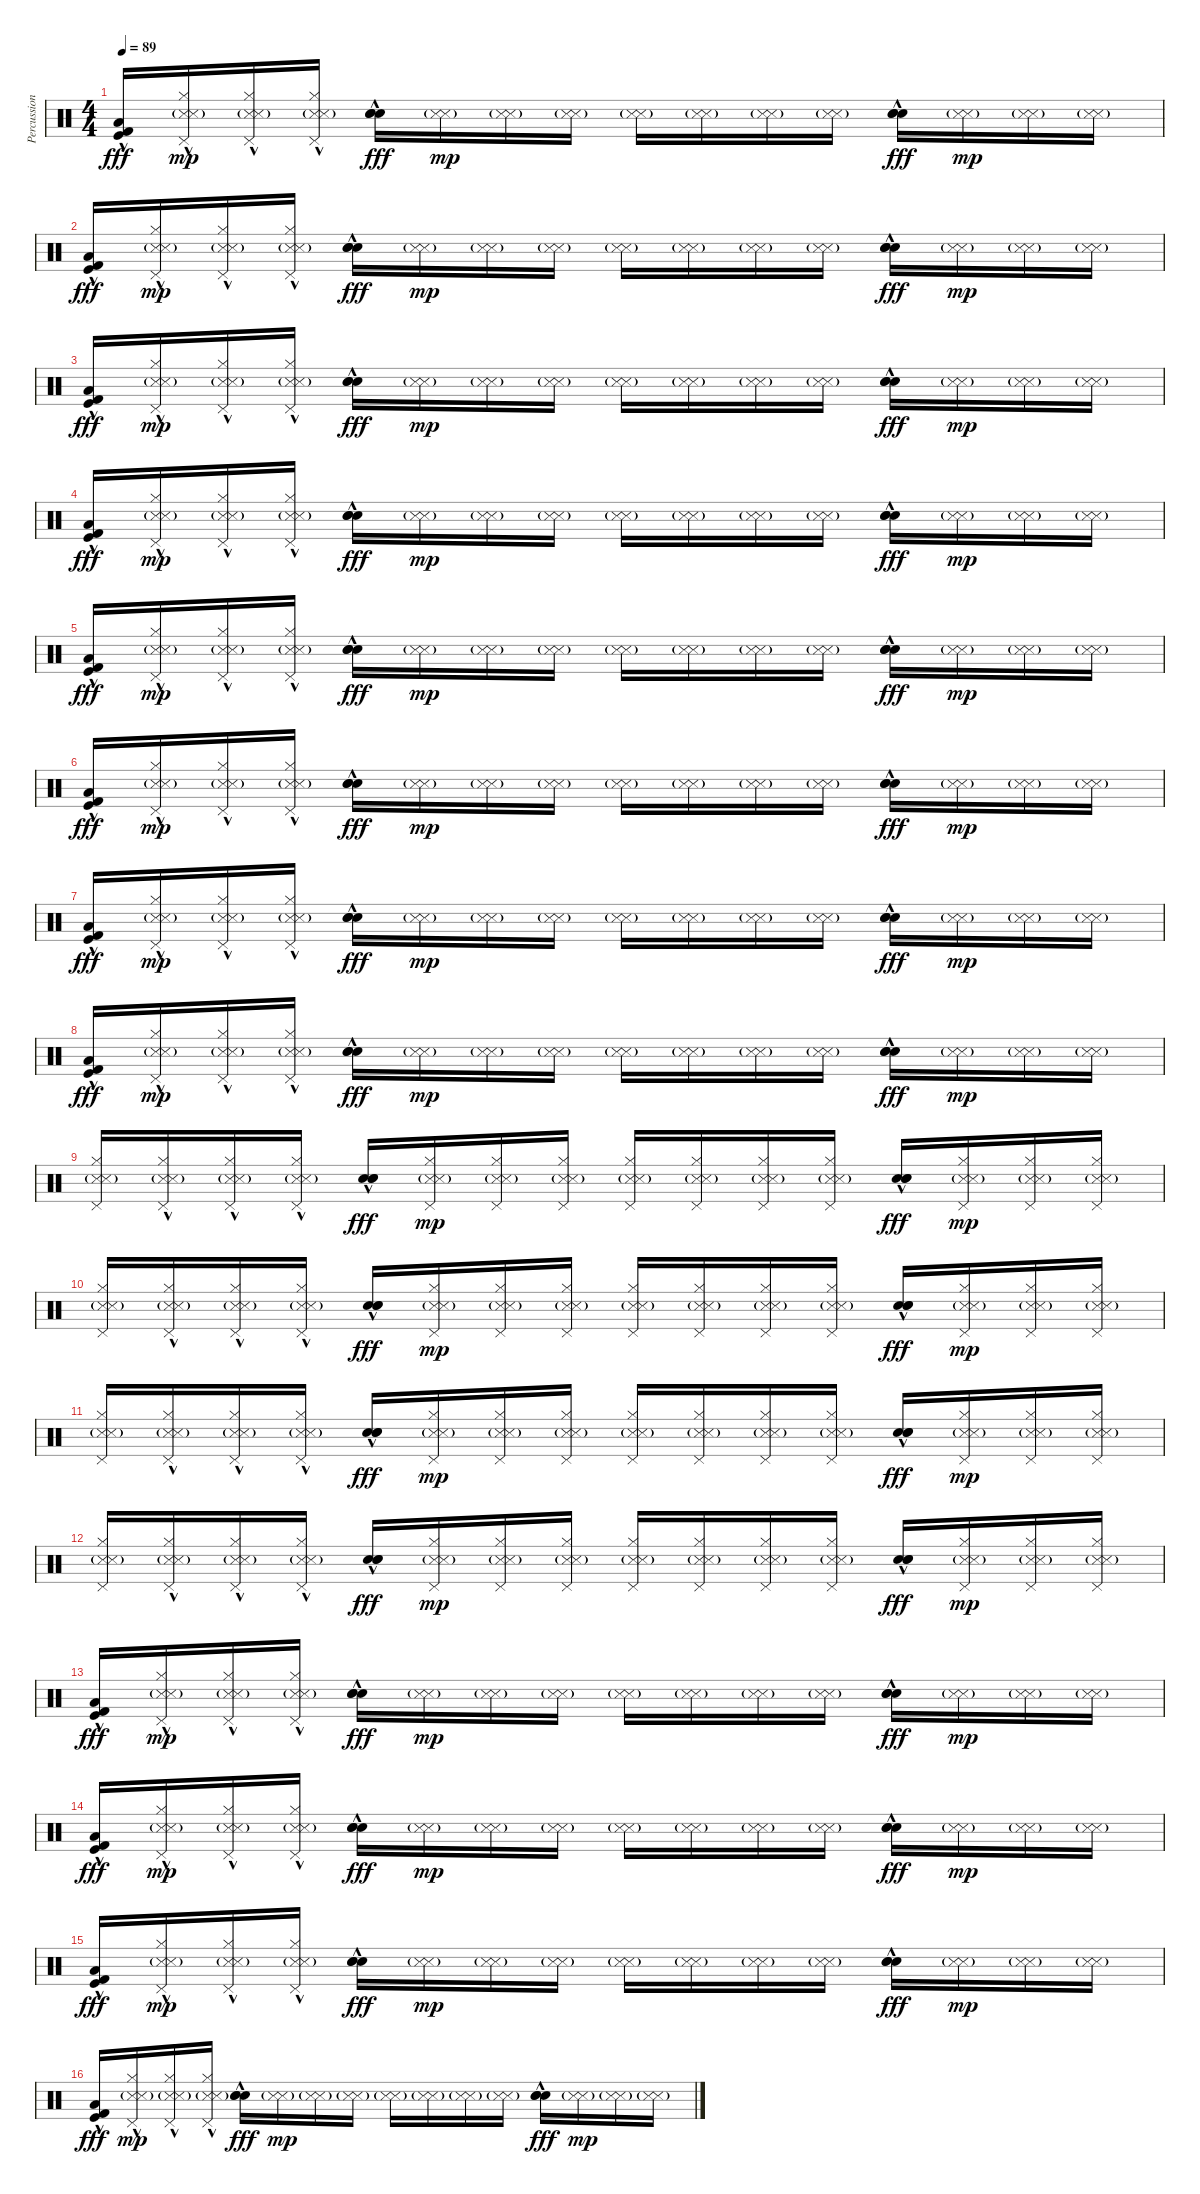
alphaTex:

\track ("Percussion" "Percussion") {instrument percussion}
\staff {score}
\articulation defaults
\ts (4 4)
\tempo 89
\clef neutral
\ks c
("Kick (hit) 2"{hac} "Kick (hit)"{hac} "Low Floor Tom (hit)"{hac}).16{dy fff} ("Pedal Hi-Hat (hit)"{hac} "Hi-Hat (closed)" "Snare (side stick) 3"{g} "Metronome (hit)"{g}).16{dy mp} ("Pedal Hi-Hat (hit)"{hac} "Hi-Hat (closed)" "Snare (side stick) 3"{g} "Metronome (hit)"{g}).16 ("Pedal Hi-Hat (hit)"{hac} "Hi-Hat (closed)" "Snare (side stick) 3"{g} "Metronome (hit)"{g}).16 ("Hand Clap (hit)"{hac} "Hand Clap (hit)"{hac} "Hand Clap (hit)"{hac}).16{dy fff} ("Snare (side stick) 3"{g} "Metronome (hit)"{g}).16{dy mp} ("Snare (side stick) 3"{g} "Metronome (hit)"{g}).16 ("Snare (side stick) 3"{g} "Metronome (hit)"{g}).16 ("Snare (side stick) 3"{g} "Metronome (hit)"{g}).16 ("Snare (side stick) 3"{g} "Metronome (hit)"{g}).16 ("Snare (side stick) 3"{g} "Metronome (hit)"{g}).16 ("Snare (side stick) 3"{g} "Metronome (hit)"{g}).16 ("Hand Clap (hit)"{hac} "Hand Clap (hit)"{hac} "Hand Clap (hit)"{hac}).16{dy fff} ("Snare (side stick) 3"{g} "Metronome (hit)"{g}).16{dy mp} ("Snare (side stick) 3"{g} "Metronome (hit)"{g}).16 ("Snare (side stick) 3"{g} "Metronome (hit)"{g}).16 |
("Kick (hit) 2"{hac} "Kick (hit)"{hac} "Low Floor Tom (hit)"{hac}).16{dy fff} ("Pedal Hi-Hat (hit)"{hac} "Hi-Hat (closed)" "Snare (side stick) 3"{g} "Metronome (hit)"{g}).16{dy mp} ("Pedal Hi-Hat (hit)"{hac} "Hi-Hat (closed)" "Snare (side stick) 3"{g} "Metronome (hit)"{g}).16 ("Pedal Hi-Hat (hit)"{hac} "Hi-Hat (closed)" "Snare (side stick) 3"{g} "Metronome (hit)"{g}).16 ("Hand Clap (hit)"{hac} "Hand Clap (hit)"{hac} "Hand Clap (hit)"{hac}).16{dy fff} ("Snare (side stick) 3"{g} "Metronome (hit)"{g}).16{dy mp} ("Snare (side stick) 3"{g} "Metronome (hit)"{g}).16 ("Snare (side stick) 3"{g} "Metronome (hit)"{g}).16 ("Snare (side stick) 3"{g} "Metronome (hit)"{g}).16 ("Snare (side stick) 3"{g} "Metronome (hit)"{g}).16 ("Snare (side stick) 3"{g} "Metronome (hit)"{g}).16 ("Snare (side stick) 3"{g} "Metronome (hit)"{g}).16 ("Hand Clap (hit)"{hac} "Hand Clap (hit)"{hac} "Hand Clap (hit)"{hac}).16{dy fff} ("Snare (side stick) 3"{g} "Metronome (hit)"{g}).16{dy mp} ("Snare (side stick) 3"{g} "Metronome (hit)"{g}).16 ("Snare (side stick) 3"{g} "Metronome (hit)"{g}).16 |
("Kick (hit) 2"{hac} "Kick (hit)"{hac} "Low Floor Tom (hit)"{hac}).16{dy fff} ("Pedal Hi-Hat (hit)"{hac} "Hi-Hat (closed)" "Snare (side stick) 3"{g} "Metronome (hit)"{g}).16{dy mp} ("Pedal Hi-Hat (hit)"{hac} "Hi-Hat (closed)" "Snare (side stick) 3"{g} "Metronome (hit)"{g}).16 ("Pedal Hi-Hat (hit)"{hac} "Hi-Hat (closed)" "Snare (side stick) 3"{g} "Metronome (hit)"{g}).16 ("Hand Clap (hit)"{hac} "Hand Clap (hit)"{hac} "Hand Clap (hit)"{hac}).16{dy fff} ("Snare (side stick) 3"{g} "Metronome (hit)"{g}).16{dy mp} ("Snare (side stick) 3"{g} "Metronome (hit)"{g}).16 ("Snare (side stick) 3"{g} "Metronome (hit)"{g}).16 ("Snare (side stick) 3"{g} "Metronome (hit)"{g}).16 ("Snare (side stick) 3"{g} "Metronome (hit)"{g}).16 ("Snare (side stick) 3"{g} "Metronome (hit)"{g}).16 ("Snare (side stick) 3"{g} "Metronome (hit)"{g}).16 ("Hand Clap (hit)"{hac} "Hand Clap (hit)"{hac} "Hand Clap (hit)"{hac}).16{dy fff} ("Snare (side stick) 3"{g} "Metronome (hit)"{g}).16{dy mp} ("Snare (side stick) 3"{g} "Metronome (hit)"{g}).16 ("Snare (side stick) 3"{g} "Metronome (hit)"{g}).16 |
("Kick (hit) 2"{hac} "Kick (hit)"{hac} "Low Floor Tom (hit)"{hac}).16{dy fff} ("Pedal Hi-Hat (hit)"{hac} "Hi-Hat (closed)" "Snare (side stick) 3"{g} "Metronome (hit)"{g}).16{dy mp} ("Pedal Hi-Hat (hit)"{hac} "Hi-Hat (closed)" "Snare (side stick) 3"{g} "Metronome (hit)"{g}).16 ("Pedal Hi-Hat (hit)"{hac} "Hi-Hat (closed)" "Snare (side stick) 3"{g} "Metronome (hit)"{g}).16 ("Hand Clap (hit)"{hac} "Hand Clap (hit)"{hac} "Hand Clap (hit)"{hac}).16{dy fff} ("Snare (side stick) 3"{g} "Metronome (hit)"{g}).16{dy mp} ("Snare (side stick) 3"{g} "Metronome (hit)"{g}).16 ("Snare (side stick) 3"{g} "Metronome (hit)"{g}).16 ("Snare (side stick) 3"{g} "Metronome (hit)"{g}).16 ("Snare (side stick) 3"{g} "Metronome (hit)"{g}).16 ("Snare (side stick) 3"{g} "Metronome (hit)"{g}).16 ("Snare (side stick) 3"{g} "Metronome (hit)"{g}).16 ("Hand Clap (hit)"{hac} "Hand Clap (hit)"{hac} "Hand Clap (hit)"{hac}).16{dy fff} ("Snare (side stick) 3"{g} "Metronome (hit)"{g}).16{dy mp} ("Snare (side stick) 3"{g} "Metronome (hit)"{g}).16 ("Snare (side stick) 3"{g} "Metronome (hit)"{g}).16 |
("Kick (hit) 2"{hac} "Kick (hit)"{hac} "Low Floor Tom (hit)"{hac}).16{dy fff} ("Pedal Hi-Hat (hit)"{hac} "Hi-Hat (closed)" "Snare (side stick) 3"{g} "Metronome (hit)"{g}).16{dy mp} ("Pedal Hi-Hat (hit)"{hac} "Hi-Hat (closed)" "Snare (side stick) 3"{g} "Metronome (hit)"{g}).16 ("Pedal Hi-Hat (hit)"{hac} "Hi-Hat (closed)" "Snare (side stick) 3"{g} "Metronome (hit)"{g}).16 ("Hand Clap (hit)"{hac} "Hand Clap (hit)"{hac} "Hand Clap (hit)"{hac}).16{dy fff} ("Snare (side stick) 3"{g} "Metronome (hit)"{g}).16{dy mp} ("Snare (side stick) 3"{g} "Metronome (hit)"{g}).16 ("Snare (side stick) 3"{g} "Metronome (hit)"{g}).16 ("Snare (side stick) 3"{g} "Metronome (hit)"{g}).16 ("Snare (side stick) 3"{g} "Metronome (hit)"{g}).16 ("Snare (side stick) 3"{g} "Metronome (hit)"{g}).16 ("Snare (side stick) 3"{g} "Metronome (hit)"{g}).16 ("Hand Clap (hit)"{hac} "Hand Clap (hit)"{hac} "Hand Clap (hit)"{hac}).16{dy fff} ("Snare (side stick) 3"{g} "Metronome (hit)"{g}).16{dy mp} ("Snare (side stick) 3"{g} "Metronome (hit)"{g}).16 ("Snare (side stick) 3"{g} "Metronome (hit)"{g}).16 |
("Kick (hit) 2"{hac} "Kick (hit)"{hac} "Low Floor Tom (hit)"{hac}).16{dy fff} ("Pedal Hi-Hat (hit)"{hac} "Hi-Hat (closed)" "Snare (side stick) 3"{g} "Metronome (hit)"{g}).16{dy mp} ("Pedal Hi-Hat (hit)"{hac} "Hi-Hat (closed)" "Snare (side stick) 3"{g} "Metronome (hit)"{g}).16 ("Pedal Hi-Hat (hit)"{hac} "Hi-Hat (closed)" "Snare (side stick) 3"{g} "Metronome (hit)"{g}).16 ("Hand Clap (hit)"{hac} "Hand Clap (hit)"{hac} "Hand Clap (hit)"{hac}).16{dy fff} ("Snare (side stick) 3"{g} "Metronome (hit)"{g}).16{dy mp} ("Snare (side stick) 3"{g} "Metronome (hit)"{g}).16 ("Snare (side stick) 3"{g} "Metronome (hit)"{g}).16 ("Snare (side stick) 3"{g} "Metronome (hit)"{g}).16 ("Snare (side stick) 3"{g} "Metronome (hit)"{g}).16 ("Snare (side stick) 3"{g} "Metronome (hit)"{g}).16 ("Snare (side stick) 3"{g} "Metronome (hit)"{g}).16 ("Hand Clap (hit)"{hac} "Hand Clap (hit)"{hac} "Hand Clap (hit)"{hac}).16{dy fff} ("Snare (side stick) 3"{g} "Metronome (hit)"{g}).16{dy mp} ("Snare (side stick) 3"{g} "Metronome (hit)"{g}).16 ("Snare (side stick) 3"{g} "Metronome (hit)"{g}).16 |
("Kick (hit) 2"{hac} "Kick (hit)"{hac} "Low Floor Tom (hit)"{hac}).16{dy fff} ("Pedal Hi-Hat (hit)"{hac} "Hi-Hat (closed)" "Snare (side stick) 3"{g} "Metronome (hit)"{g}).16{dy mp} ("Pedal Hi-Hat (hit)"{hac} "Hi-Hat (closed)" "Snare (side stick) 3"{g} "Metronome (hit)"{g}).16 ("Pedal Hi-Hat (hit)"{hac} "Hi-Hat (closed)" "Snare (side stick) 3"{g} "Metronome (hit)"{g}).16 ("Hand Clap (hit)"{hac} "Hand Clap (hit)"{hac} "Hand Clap (hit)"{hac}).16{dy fff} ("Snare (side stick) 3"{g} "Metronome (hit)"{g}).16{dy mp} ("Snare (side stick) 3"{g} "Metronome (hit)"{g}).16 ("Snare (side stick) 3"{g} "Metronome (hit)"{g}).16 ("Snare (side stick) 3"{g} "Metronome (hit)"{g}).16 ("Snare (side stick) 3"{g} "Metronome (hit)"{g}).16 ("Snare (side stick) 3"{g} "Metronome (hit)"{g}).16 ("Snare (side stick) 3"{g} "Metronome (hit)"{g}).16 ("Hand Clap (hit)"{hac} "Hand Clap (hit)"{hac} "Hand Clap (hit)"{hac}).16{dy fff} ("Snare (side stick) 3"{g} "Metronome (hit)"{g}).16{dy mp} ("Snare (side stick) 3"{g} "Metronome (hit)"{g}).16 ("Snare (side stick) 3"{g} "Metronome (hit)"{g}).16 |
("Kick (hit) 2"{hac} "Kick (hit)"{hac} "Low Floor Tom (hit)"{hac}).16{dy fff} ("Pedal Hi-Hat (hit)"{hac} "Hi-Hat (closed)" "Snare (side stick) 3"{g} "Metronome (hit)"{g}).16{dy mp} ("Pedal Hi-Hat (hit)"{hac} "Hi-Hat (closed)" "Snare (side stick) 3"{g} "Metronome (hit)"{g}).16 ("Pedal Hi-Hat (hit)"{hac} "Hi-Hat (closed)" "Snare (side stick) 3"{g} "Metronome (hit)"{g}).16 ("Hand Clap (hit)"{hac} "Hand Clap (hit)"{hac} "Hand Clap (hit)"{hac}).16{dy fff} ("Snare (side stick) 3"{g} "Metronome (hit)"{g}).16{dy mp} ("Snare (side stick) 3"{g} "Metronome (hit)"{g}).16 ("Snare (side stick) 3"{g} "Metronome (hit)"{g}).16 ("Snare (side stick) 3"{g} "Metronome (hit)"{g}).16 ("Snare (side stick) 3"{g} "Metronome (hit)"{g}).16 ("Snare (side stick) 3"{g} "Metronome (hit)"{g}).16 ("Snare (side stick) 3"{g} "Metronome (hit)"{g}).16 ("Hand Clap (hit)"{hac} "Hand Clap (hit)"{hac} "Hand Clap (hit)"{hac}).16{dy fff} ("Snare (side stick) 3"{g} "Metronome (hit)"{g}).16{dy mp} ("Snare (side stick) 3"{g} "Metronome (hit)"{g}).16 ("Snare (side stick) 3"{g} "Metronome (hit)"{g}).16 |
("Pedal Hi-Hat (hit)" "Hi-Hat (closed)" "Snare (side stick) 3"{g} "Metronome (hit)"{g}).16 ("Pedal Hi-Hat (hit)"{hac} "Hi-Hat (closed)" "Snare (side stick) 3"{g} "Metronome (hit)"{g}).16 ("Pedal Hi-Hat (hit)"{hac} "Hi-Hat (closed)" "Snare (side stick) 3"{g} "Metronome (hit)"{g}).16 ("Pedal Hi-Hat (hit)"{hac} "Hi-Hat (closed)" "Snare (side stick) 3"{g} "Metronome (hit)"{g}).16 ("Hand Clap (hit)"{hac} "Hand Clap (hit)"{hac} "Hand Clap (hit)"{hac}).16{dy fff} ("Pedal Hi-Hat (hit)" "Hi-Hat (closed)" "Snare (side stick) 3"{g} "Metronome (hit)"{g}).16{dy mp} ("Pedal Hi-Hat (hit)" "Hi-Hat (closed)" "Snare (side stick) 3"{g} "Metronome (hit)"{g}).16 ("Pedal Hi-Hat (hit)" "Hi-Hat (closed)" "Snare (side stick) 3"{g} "Metronome (hit)"{g}).16 ("Pedal Hi-Hat (hit)" "Hi-Hat (closed)" "Snare (side stick) 3"{g} "Metronome (hit)"{g}).16 ("Pedal Hi-Hat (hit)" "Hi-Hat (closed)" "Snare (side stick) 3"{g} "Metronome (hit)"{g}).16 ("Pedal Hi-Hat (hit)" "Hi-Hat (closed)" "Snare (side stick) 3"{g} "Metronome (hit)"{g}).16 ("Pedal Hi-Hat (hit)" "Hi-Hat (closed)" "Snare (side stick) 3"{g} "Metronome (hit)"{g}).16 ("Hand Clap (hit)"{hac} "Hand Clap (hit)"{hac} "Hand Clap (hit)"{hac}).16{dy fff} ("Pedal Hi-Hat (hit)" "Hi-Hat (closed)" "Snare (side stick) 3"{g} "Metronome (hit)"{g}).16{dy mp} ("Pedal Hi-Hat (hit)" "Hi-Hat (closed)" "Snare (side stick) 3"{g} "Metronome (hit)"{g}).16 ("Pedal Hi-Hat (hit)" "Hi-Hat (closed)" "Snare (side stick) 3"{g} "Metronome (hit)"{g}).16 |
("Pedal Hi-Hat (hit)" "Hi-Hat (closed)" "Snare (side stick) 3"{g} "Metronome (hit)"{g}).16 ("Pedal Hi-Hat (hit)"{hac} "Hi-Hat (closed)" "Snare (side stick) 3"{g} "Metronome (hit)"{g}).16 ("Pedal Hi-Hat (hit)"{hac} "Hi-Hat (closed)" "Snare (side stick) 3"{g} "Metronome (hit)"{g}).16 ("Pedal Hi-Hat (hit)"{hac} "Hi-Hat (closed)" "Snare (side stick) 3"{g} "Metronome (hit)"{g}).16 ("Hand Clap (hit)"{hac} "Hand Clap (hit)"{hac} "Hand Clap (hit)"{hac}).16{dy fff} ("Pedal Hi-Hat (hit)" "Hi-Hat (closed)" "Snare (side stick) 3"{g} "Metronome (hit)"{g}).16{dy mp} ("Pedal Hi-Hat (hit)" "Hi-Hat (closed)" "Snare (side stick) 3"{g} "Metronome (hit)"{g}).16 ("Pedal Hi-Hat (hit)" "Hi-Hat (closed)" "Snare (side stick) 3"{g} "Metronome (hit)"{g}).16 ("Pedal Hi-Hat (hit)" "Hi-Hat (closed)" "Snare (side stick) 3"{g} "Metronome (hit)"{g}).16 ("Pedal Hi-Hat (hit)" "Hi-Hat (closed)" "Snare (side stick) 3"{g} "Metronome (hit)"{g}).16 ("Pedal Hi-Hat (hit)" "Hi-Hat (closed)" "Snare (side stick) 3"{g} "Metronome (hit)"{g}).16 ("Pedal Hi-Hat (hit)" "Hi-Hat (closed)" "Snare (side stick) 3"{g} "Metronome (hit)"{g}).16 ("Hand Clap (hit)"{hac} "Hand Clap (hit)"{hac} "Hand Clap (hit)"{hac}).16{dy fff} ("Pedal Hi-Hat (hit)" "Hi-Hat (closed)" "Snare (side stick) 3"{g} "Metronome (hit)"{g}).16{dy mp} ("Pedal Hi-Hat (hit)" "Hi-Hat (closed)" "Snare (side stick) 3"{g} "Metronome (hit)"{g}).16 ("Pedal Hi-Hat (hit)" "Hi-Hat (closed)" "Snare (side stick) 3"{g} "Metronome (hit)"{g}).16 |
("Pedal Hi-Hat (hit)" "Hi-Hat (closed)" "Snare (side stick) 3"{g} "Metronome (hit)"{g}).16 ("Pedal Hi-Hat (hit)"{hac} "Hi-Hat (closed)" "Snare (side stick) 3"{g} "Metronome (hit)"{g}).16 ("Pedal Hi-Hat (hit)"{hac} "Hi-Hat (closed)" "Snare (side stick) 3"{g} "Metronome (hit)"{g}).16 ("Pedal Hi-Hat (hit)"{hac} "Hi-Hat (closed)" "Snare (side stick) 3"{g} "Metronome (hit)"{g}).16 ("Hand Clap (hit)"{hac} "Hand Clap (hit)"{hac} "Hand Clap (hit)"{hac}).16{dy fff} ("Pedal Hi-Hat (hit)" "Hi-Hat (closed)" "Snare (side stick) 3"{g} "Metronome (hit)"{g}).16{dy mp} ("Pedal Hi-Hat (hit)" "Hi-Hat (closed)" "Snare (side stick) 3"{g} "Metronome (hit)"{g}).16 ("Pedal Hi-Hat (hit)" "Hi-Hat (closed)" "Snare (side stick) 3"{g} "Metronome (hit)"{g}).16 ("Pedal Hi-Hat (hit)" "Hi-Hat (closed)" "Snare (side stick) 3"{g} "Metronome (hit)"{g}).16 ("Pedal Hi-Hat (hit)" "Hi-Hat (closed)" "Snare (side stick) 3"{g} "Metronome (hit)"{g}).16 ("Pedal Hi-Hat (hit)" "Hi-Hat (closed)" "Snare (side stick) 3"{g} "Metronome (hit)"{g}).16 ("Pedal Hi-Hat (hit)" "Hi-Hat (closed)" "Snare (side stick) 3"{g} "Metronome (hit)"{g}).16 ("Hand Clap (hit)"{hac} "Hand Clap (hit)"{hac} "Hand Clap (hit)"{hac}).16{dy fff} ("Pedal Hi-Hat (hit)" "Hi-Hat (closed)" "Snare (side stick) 3"{g} "Metronome (hit)"{g}).16{dy mp} ("Pedal Hi-Hat (hit)" "Hi-Hat (closed)" "Snare (side stick) 3"{g} "Metronome (hit)"{g}).16 ("Pedal Hi-Hat (hit)" "Hi-Hat (closed)" "Snare (side stick) 3"{g} "Metronome (hit)"{g}).16 |
("Pedal Hi-Hat (hit)" "Hi-Hat (closed)" "Snare (side stick) 3"{g} "Metronome (hit)"{g}).16 ("Pedal Hi-Hat (hit)"{hac} "Hi-Hat (closed)" "Snare (side stick) 3"{g} "Metronome (hit)"{g}).16 ("Pedal Hi-Hat (hit)"{hac} "Hi-Hat (closed)" "Snare (side stick) 3"{g} "Metronome (hit)"{g}).16 ("Pedal Hi-Hat (hit)"{hac} "Hi-Hat (closed)" "Snare (side stick) 3"{g} "Metronome (hit)"{g}).16 ("Hand Clap (hit)"{hac} "Hand Clap (hit)"{hac} "Hand Clap (hit)"{hac}).16{dy fff} ("Pedal Hi-Hat (hit)" "Hi-Hat (closed)" "Snare (side stick) 3"{g} "Metronome (hit)"{g}).16{dy mp} ("Pedal Hi-Hat (hit)" "Hi-Hat (closed)" "Snare (side stick) 3"{g} "Metronome (hit)"{g}).16 ("Pedal Hi-Hat (hit)" "Hi-Hat (closed)" "Snare (side stick) 3"{g} "Metronome (hit)"{g}).16 ("Pedal Hi-Hat (hit)" "Hi-Hat (closed)" "Snare (side stick) 3"{g} "Metronome (hit)"{g}).16 ("Pedal Hi-Hat (hit)" "Hi-Hat (closed)" "Snare (side stick) 3"{g} "Metronome (hit)"{g}).16 ("Pedal Hi-Hat (hit)" "Hi-Hat (closed)" "Snare (side stick) 3"{g} "Metronome (hit)"{g}).16 ("Pedal Hi-Hat (hit)" "Hi-Hat (closed)" "Snare (side stick) 3"{g} "Metronome (hit)"{g}).16 ("Hand Clap (hit)"{hac} "Hand Clap (hit)"{hac} "Hand Clap (hit)"{hac}).16{dy fff} ("Pedal Hi-Hat (hit)" "Hi-Hat (closed)" "Snare (side stick) 3"{g} "Metronome (hit)"{g}).16{dy mp} ("Pedal Hi-Hat (hit)" "Hi-Hat (closed)" "Snare (side stick) 3"{g} "Metronome (hit)"{g}).16 ("Pedal Hi-Hat (hit)" "Hi-Hat (closed)" "Snare (side stick) 3"{g} "Metronome (hit)"{g}).16 |
("Kick (hit) 2"{hac} "Kick (hit)"{hac} "Low Floor Tom (hit)"{hac}).16{dy fff} ("Pedal Hi-Hat (hit)"{hac} "Hi-Hat (closed)" "Snare (side stick) 3"{g} "Metronome (hit)"{g}).16{dy mp} ("Pedal Hi-Hat (hit)"{hac} "Hi-Hat (closed)" "Snare (side stick) 3"{g} "Metronome (hit)"{g}).16 ("Pedal Hi-Hat (hit)"{hac} "Hi-Hat (closed)" "Snare (side stick) 3"{g} "Metronome (hit)"{g}).16 ("Hand Clap (hit)"{hac} "Hand Clap (hit)"{hac} "Hand Clap (hit)"{hac}).16{dy fff} ("Snare (side stick) 3"{g} "Metronome (hit)"{g}).16{dy mp} ("Snare (side stick) 3"{g} "Metronome (hit)"{g}).16 ("Snare (side stick) 3"{g} "Metronome (hit)"{g}).16 ("Snare (side stick) 3"{g} "Metronome (hit)"{g}).16 ("Snare (side stick) 3"{g} "Metronome (hit)"{g}).16 ("Snare (side stick) 3"{g} "Metronome (hit)"{g}).16 ("Snare (side stick) 3"{g} "Metronome (hit)"{g}).16 ("Hand Clap (hit)"{hac} "Hand Clap (hit)"{hac} "Hand Clap (hit)"{hac}).16{dy fff} ("Snare (side stick) 3"{g} "Metronome (hit)"{g}).16{dy mp} ("Snare (side stick) 3"{g} "Metronome (hit)"{g}).16 ("Snare (side stick) 3"{g} "Metronome (hit)"{g}).16 |
("Kick (hit) 2"{hac} "Kick (hit)"{hac} "Low Floor Tom (hit)"{hac}).16{dy fff} ("Pedal Hi-Hat (hit)"{hac} "Hi-Hat (closed)" "Snare (side stick) 3"{g} "Metronome (hit)"{g}).16{dy mp} ("Pedal Hi-Hat (hit)"{hac} "Hi-Hat (closed)" "Snare (side stick) 3"{g} "Metronome (hit)"{g}).16 ("Pedal Hi-Hat (hit)"{hac} "Hi-Hat (closed)" "Snare (side stick) 3"{g} "Metronome (hit)"{g}).16 ("Hand Clap (hit)"{hac} "Hand Clap (hit)"{hac} "Hand Clap (hit)"{hac}).16{dy fff} ("Snare (side stick) 3"{g} "Metronome (hit)"{g}).16{dy mp} ("Snare (side stick) 3"{g} "Metronome (hit)"{g}).16 ("Snare (side stick) 3"{g} "Metronome (hit)"{g}).16 ("Snare (side stick) 3"{g} "Metronome (hit)"{g}).16 ("Snare (side stick) 3"{g} "Metronome (hit)"{g}).16 ("Snare (side stick) 3"{g} "Metronome (hit)"{g}).16 ("Snare (side stick) 3"{g} "Metronome (hit)"{g}).16 ("Hand Clap (hit)"{hac} "Hand Clap (hit)"{hac} "Hand Clap (hit)"{hac}).16{dy fff} ("Snare (side stick) 3"{g} "Metronome (hit)"{g}).16{dy mp} ("Snare (side stick) 3"{g} "Metronome (hit)"{g}).16 ("Snare (side stick) 3"{g} "Metronome (hit)"{g}).16 |
("Kick (hit) 2"{hac} "Kick (hit)"{hac} "Low Floor Tom (hit)"{hac}).16{dy fff} ("Pedal Hi-Hat (hit)"{hac} "Hi-Hat (closed)" "Snare (side stick) 3"{g} "Metronome (hit)"{g}).16{dy mp} ("Pedal Hi-Hat (hit)"{hac} "Hi-Hat (closed)" "Snare (side stick) 3"{g} "Metronome (hit)"{g}).16 ("Pedal Hi-Hat (hit)"{hac} "Hi-Hat (closed)" "Snare (side stick) 3"{g} "Metronome (hit)"{g}).16 ("Hand Clap (hit)"{hac} "Hand Clap (hit)"{hac} "Hand Clap (hit)"{hac}).16{dy fff} ("Snare (side stick) 3"{g} "Metronome (hit)"{g}).16{dy mp} ("Snare (side stick) 3"{g} "Metronome (hit)"{g}).16 ("Snare (side stick) 3"{g} "Metronome (hit)"{g}).16 ("Snare (side stick) 3"{g} "Metronome (hit)"{g}).16 ("Snare (side stick) 3"{g} "Metronome (hit)"{g}).16 ("Snare (side stick) 3"{g} "Metronome (hit)"{g}).16 ("Snare (side stick) 3"{g} "Metronome (hit)"{g}).16 ("Hand Clap (hit)"{hac} "Hand Clap (hit)"{hac} "Hand Clap (hit)"{hac}).16{dy fff} ("Snare (side stick) 3"{g} "Metronome (hit)"{g}).16{dy mp} ("Snare (side stick) 3"{g} "Metronome (hit)"{g}).16 ("Snare (side stick) 3"{g} "Metronome (hit)"{g}).16 |
("Kick (hit) 2"{hac} "Kick (hit)"{hac} "Low Floor Tom (hit)"{hac}).16{dy fff} ("Pedal Hi-Hat (hit)"{hac} "Hi-Hat (closed)" "Snare (side stick) 3"{g} "Metronome (hit)"{g}).16{dy mp} ("Pedal Hi-Hat (hit)"{hac} "Hi-Hat (closed)" "Snare (side stick) 3"{g} "Metronome (hit)"{g}).16 ("Pedal Hi-Hat (hit)"{hac} "Hi-Hat (closed)" "Snare (side stick) 3"{g} "Metronome (hit)"{g}).16 ("Hand Clap (hit)"{hac} "Hand Clap (hit)"{hac} "Hand Clap (hit)"{hac}).16{dy fff} ("Snare (side stick) 3"{g} "Metronome (hit)"{g}).16{dy mp} ("Snare (side stick) 3"{g} "Metronome (hit)"{g}).16 ("Snare (side stick) 3"{g} "Metronome (hit)"{g}).16 ("Snare (side stick) 3"{g} "Metronome (hit)"{g}).16 ("Snare (side stick) 3"{g} "Metronome (hit)"{g}).16 ("Snare (side stick) 3"{g} "Metronome (hit)"{g}).16 ("Snare (side stick) 3"{g} "Metronome (hit)"{g}).16 ("Hand Clap (hit)"{hac} "Hand Clap (hit)"{hac} "Hand Clap (hit)"{hac}).16{dy fff} ("Snare (side stick) 3"{g} "Metronome (hit)"{g}).16{dy mp} ("Snare (side stick) 3"{g} "Metronome (hit)"{g}).16 ("Snare (side stick) 3"{g} "Metronome (hit)"{g}).16
